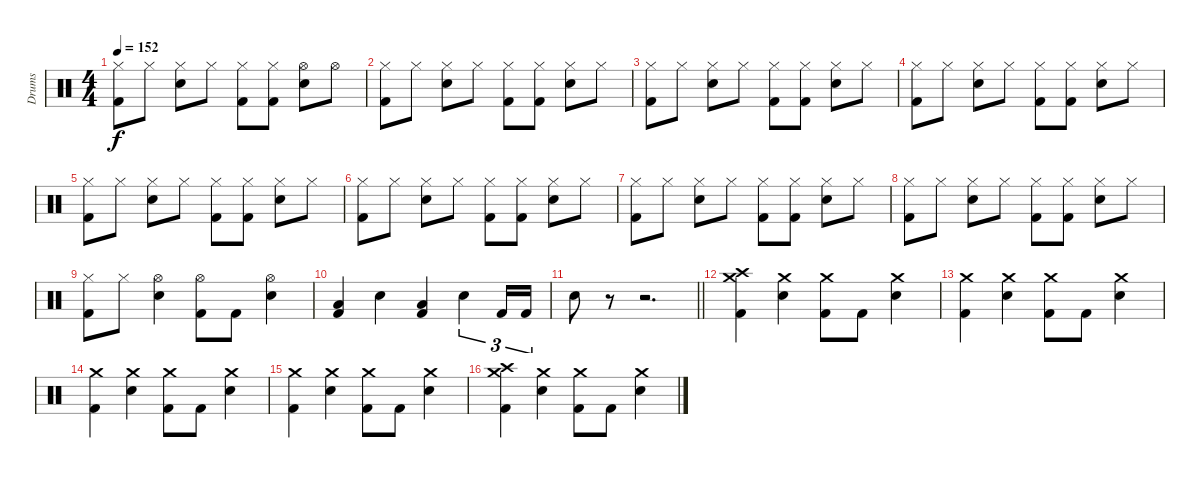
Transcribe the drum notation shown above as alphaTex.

\track ("Drums" "Drums") {instrument percussion}
\staff {score}
\articulation defaults
\ts (4 4)
\tempo 152
\clef neutral
\ks c
("Hi-Hat (closed)" "Kick (hit) 2").8{dy f} "Hi-Hat (closed)".8 ("Hi-Hat (closed)" "Snare (hit) 2").8 "Hi-Hat (closed)".8 ("Hi-Hat (closed)" "Kick (hit) 2").8 ("Hi-Hat (closed)" "Kick (hit) 2").8 ("Hi-Hat (open)" "Snare (hit) 2").8 "Hi-Hat (open)".8 |
("Hi-Hat (closed)" "Kick (hit) 2").8 "Hi-Hat (closed)".8 ("Hi-Hat (closed)" "Snare (hit) 2").8 "Hi-Hat (closed)".8 ("Hi-Hat (closed)" "Kick (hit) 2").8 ("Hi-Hat (closed)" "Kick (hit) 2").8 ("Hi-Hat (closed)" "Snare (hit) 2").8 "Hi-Hat (closed)".8 |
("Hi-Hat (closed)" "Kick (hit) 2").8 "Hi-Hat (closed)".8 ("Hi-Hat (closed)" "Snare (hit) 2").8 "Hi-Hat (closed)".8 ("Hi-Hat (closed)" "Kick (hit) 2").8 ("Hi-Hat (closed)" "Kick (hit) 2").8 ("Hi-Hat (closed)" "Snare (hit) 2").8 "Hi-Hat (closed)".8 |
("Hi-Hat (closed)" "Kick (hit) 2").8 "Hi-Hat (closed)".8 ("Hi-Hat (closed)" "Snare (hit) 2").8 "Hi-Hat (closed)".8 ("Hi-Hat (closed)" "Kick (hit) 2").8 ("Hi-Hat (closed)" "Kick (hit) 2").8 ("Hi-Hat (closed)" "Snare (hit) 2").8 "Hi-Hat (closed)".8 |
("Hi-Hat (closed)" "Kick (hit) 2").8 "Hi-Hat (closed)".8 ("Hi-Hat (closed)" "Snare (hit) 2").8 "Hi-Hat (closed)".8 ("Hi-Hat (closed)" "Kick (hit) 2").8 ("Hi-Hat (closed)" "Kick (hit) 2").8 ("Hi-Hat (closed)" "Snare (hit) 2").8 "Hi-Hat (closed)".8 |
("Hi-Hat (closed)" "Kick (hit) 2").8 "Hi-Hat (closed)".8 ("Hi-Hat (closed)" "Snare (hit) 2").8 "Hi-Hat (closed)".8 ("Hi-Hat (closed)" "Kick (hit) 2").8 ("Hi-Hat (closed)" "Kick (hit) 2").8 ("Hi-Hat (closed)" "Snare (hit) 2").8 "Hi-Hat (closed)".8 |
("Hi-Hat (closed)" "Kick (hit) 2").8 "Hi-Hat (closed)".8 ("Hi-Hat (closed)" "Snare (hit) 2").8 "Hi-Hat (closed)".8 ("Hi-Hat (closed)" "Kick (hit) 2").8 ("Hi-Hat (closed)" "Kick (hit) 2").8 ("Hi-Hat (closed)" "Snare (hit) 2").8 "Hi-Hat (closed)".8 |
("Hi-Hat (closed)" "Kick (hit) 2").8 "Hi-Hat (closed)".8 ("Hi-Hat (closed)" "Snare (hit) 2").8 "Hi-Hat (closed)".8 ("Hi-Hat (closed)" "Kick (hit) 2").8 ("Hi-Hat (closed)" "Kick (hit) 2").8 ("Hi-Hat (closed)" "Snare (hit) 2").8 "Hi-Hat (closed)".8 |
("Hi-Hat (closed)" "Kick (hit) 2").8 "Hi-Hat (closed)".8 ("Hi-Hat (open)" "Snare (hit) 2").4 ("Hi-Hat (open)" "Kick (hit) 2").8 "Kick (hit) 2".8 ("Hi-Hat (open)" "Snare (hit) 2").4 |
("Low Floor Tom (hit)" "Kick (hit) 2").4 "Snare (hit) 2".4 ("Low Floor Tom (hit)" "Kick (hit) 2").4 "Snare (hit) 2".4{tu (3 2)} "Kick (hit) 2".16{tu (3 2)} "Kick (hit) 2".16{tu (3 2)} |
\barLineRight lightlight "Snare (hit) 2".8
r.8 r.2{d} |
("Crash high (hit)" "Crash medium (hit)" "Kick (hit) 2").4 ("Crash medium (hit)" "Snare (hit) 2").4 ("Crash medium (hit)" "Kick (hit) 2").8 "Kick (hit) 2".8 ("Crash medium (hit)" "Snare (hit) 2").4 |
("Crash medium (hit)" "Kick (hit) 2").4 ("Crash medium (hit)" "Snare (hit) 2").4 ("Crash medium (hit)" "Kick (hit) 2").8 "Kick (hit) 2".8 ("Crash medium (hit)" "Snare (hit) 2").4 |
("Crash medium (hit)" "Kick (hit) 2").4 ("Crash medium (hit)" "Snare (hit) 2").4 ("Crash medium (hit)" "Kick (hit) 2").8 "Kick (hit) 2".8 ("Crash medium (hit)" "Snare (hit) 2").4 |
("Crash medium (hit)" "Kick (hit) 2").4 ("Crash medium (hit)" "Snare (hit) 2").4 ("Crash medium (hit)" "Kick (hit) 2").8 "Kick (hit) 2".8 ("Crash medium (hit)" "Snare (hit) 2").4 |
("Crash high (hit)" "Crash medium (hit)" "Kick (hit) 2").4 ("Crash medium (hit)" "Snare (hit) 2").4 ("Crash medium (hit)" "Kick (hit) 2").8 "Kick (hit) 2".8 ("Crash medium (hit)" "Snare (hit) 2").4
